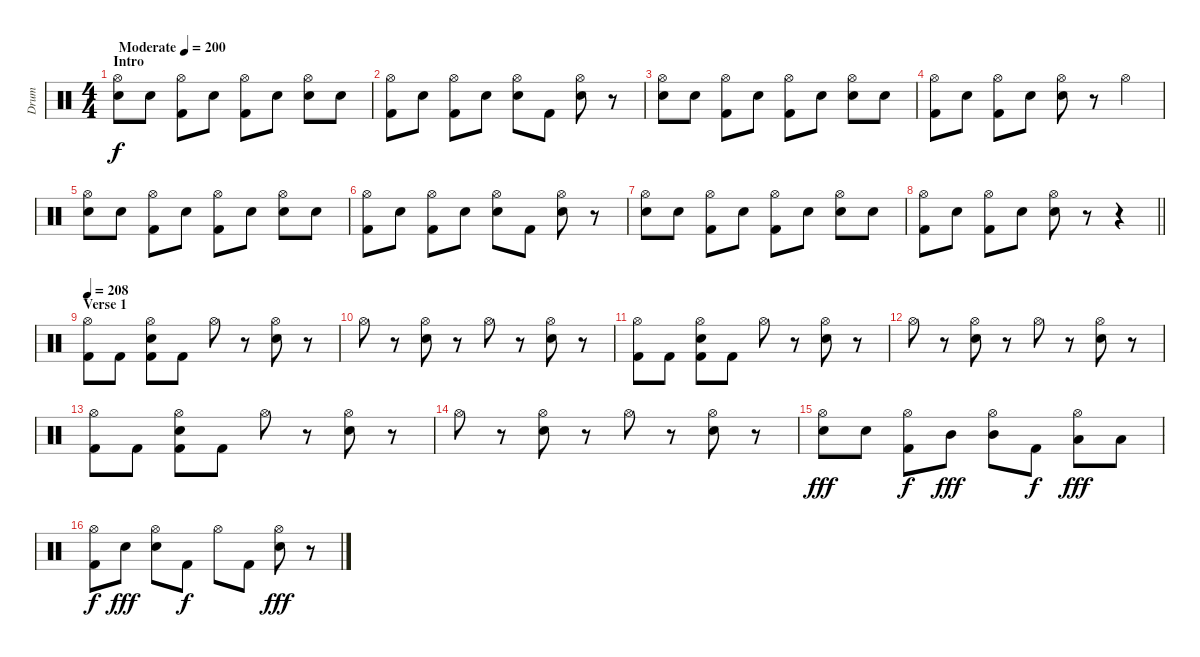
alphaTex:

\track ("Drum" "Drum") {instrument percussion}
\staff {score}
\articulation defaults
\ts (4 4)
\section ("" "Intro")
\tempo (200 "Moderate")
\clef neutral
\ks c
("Hi-Hat (open)" "Electric Snare (hit)").8{dy f} "Electric Snare (hit)".8 ("Hi-Hat (open)" "Kick (hit) 2").8 "Electric Snare (hit)".8 ("Hi-Hat (open)" "Kick (hit) 2").8 "Electric Snare (hit)".8 ("Hi-Hat (open)" "Electric Snare (hit)").8 "Electric Snare (hit)".8 |
("Hi-Hat (open)" "Kick (hit) 2").8 "Electric Snare (hit)".8 ("Hi-Hat (open)" "Kick (hit) 2").8 "Electric Snare (hit)".8 ("Hi-Hat (open)" "Electric Snare (hit)").8 "Kick (hit) 2".8 ("Hi-Hat (open)" "Electric Snare (hit)").8 r.8 |
("Hi-Hat (open)" "Electric Snare (hit)").8 "Electric Snare (hit)".8 ("Hi-Hat (open)" "Kick (hit) 2").8 "Electric Snare (hit)".8 ("Hi-Hat (open)" "Kick (hit) 2").8 "Electric Snare (hit)".8 ("Hi-Hat (open)" "Electric Snare (hit)").8 "Electric Snare (hit)".8 |
("Hi-Hat (open)" "Kick (hit) 2").8 "Electric Snare (hit)".8 ("Hi-Hat (open)" "Kick (hit) 2").8 "Electric Snare (hit)".8 ("Hi-Hat (open)" "Electric Snare (hit)").8 r.8 "Hi-Hat (open)".4 |
("Hi-Hat (open)" "Electric Snare (hit)").8 "Electric Snare (hit)".8 ("Hi-Hat (open)" "Kick (hit) 2").8 "Electric Snare (hit)".8 ("Hi-Hat (open)" "Kick (hit) 2").8 "Electric Snare (hit)".8 ("Hi-Hat (open)" "Electric Snare (hit)").8 "Electric Snare (hit)".8 |
("Hi-Hat (open)" "Kick (hit) 2").8 "Electric Snare (hit)".8 ("Hi-Hat (open)" "Kick (hit) 2").8 "Electric Snare (hit)".8 ("Hi-Hat (open)" "Electric Snare (hit)").8 "Kick (hit) 2".8 ("Hi-Hat (open)" "Electric Snare (hit)").8 r.8 |
("Hi-Hat (open)" "Electric Snare (hit)").8 "Electric Snare (hit)".8 ("Hi-Hat (open)" "Kick (hit) 2").8 "Electric Snare (hit)".8 ("Hi-Hat (open)" "Kick (hit) 2").8 "Electric Snare (hit)".8 ("Hi-Hat (open)" "Electric Snare (hit)").8 "Electric Snare (hit)".8 |
\barLineRight lightlight
("Hi-Hat (open)" "Kick (hit) 2").8 "Electric Snare (hit)".8 ("Hi-Hat (open)" "Kick (hit) 2").8 "Electric Snare (hit)".8 ("Hi-Hat (open)" "Electric Snare (hit)").8 r.8 r.4 |
\section ("" "Verse 1")
\tempo 208
("Hi-Hat (open)" "Kick (hit) 2").8 "Kick (hit) 2".8 ("Hi-Hat (open)" "Electric Snare (hit)" "Kick (hit) 2").8 "Kick (hit) 2".8 "Hi-Hat (open)".8 r.8 ("Hi-Hat (open)" "Electric Snare (hit)").8 r.8 |
"Hi-Hat (open)".8 r.8 ("Hi-Hat (open)" "Electric Snare (hit)").8 r.8 "Hi-Hat (open)".8 r.8 ("Hi-Hat (open)" "Electric Snare (hit)").8 r.8 |
("Hi-Hat (open)" "Kick (hit) 2").8 "Kick (hit) 2".8 ("Hi-Hat (open)" "Electric Snare (hit)" "Kick (hit) 2").8 "Kick (hit) 2".8 "Hi-Hat (open)".8 r.8 ("Hi-Hat (open)" "Electric Snare (hit)").8 r.8 |
"Hi-Hat (open)".8 r.8 ("Hi-Hat (open)" "Electric Snare (hit)").8 r.8 "Hi-Hat (open)".8 r.8 ("Hi-Hat (open)" "Electric Snare (hit)").8 r.8 |
("Hi-Hat (open)" "Kick (hit) 2").8 "Kick (hit) 2".8 ("Hi-Hat (open)" "Electric Snare (hit)" "Kick (hit) 2").8 "Kick (hit) 2".8 "Hi-Hat (open)".8 r.8 ("Hi-Hat (open)" "Electric Snare (hit)").8 r.8 |
"Hi-Hat (open)".8 r.8 ("Hi-Hat (open)" "Electric Snare (hit)").8 r.8 "Hi-Hat (open)".8 r.8 ("Hi-Hat (open)" "Electric Snare (hit)").8 r.8 |
("Hi-Hat (open)" "Electric Snare (hit)").8{dy fff} "Electric Snare (hit)".8 ("Hi-Hat (open)" "Kick (hit) 2").8{dy f} "Mid Tom (hit)".8{dy fff} ("Hi-Hat (open)" "Mid Tom (hit)").8 "Kick (hit) 2".8{dy f} ("Hi-Hat (open)" "Low Tom (hit)").8{dy fff} "Low Tom (hit)".8 |
("Hi-Hat (open)" "Kick (hit) 2").8{dy f} "Electric Snare (hit)".8{dy fff} ("Hi-Hat (open)" "Electric Snare (hit)").8 "Kick (hit) 2".8{dy f} "Hi-Hat (open)".8 "Kick (hit) 2".8 ("Hi-Hat (open)" "Electric Snare (hit)").8{dy fff} r.8
